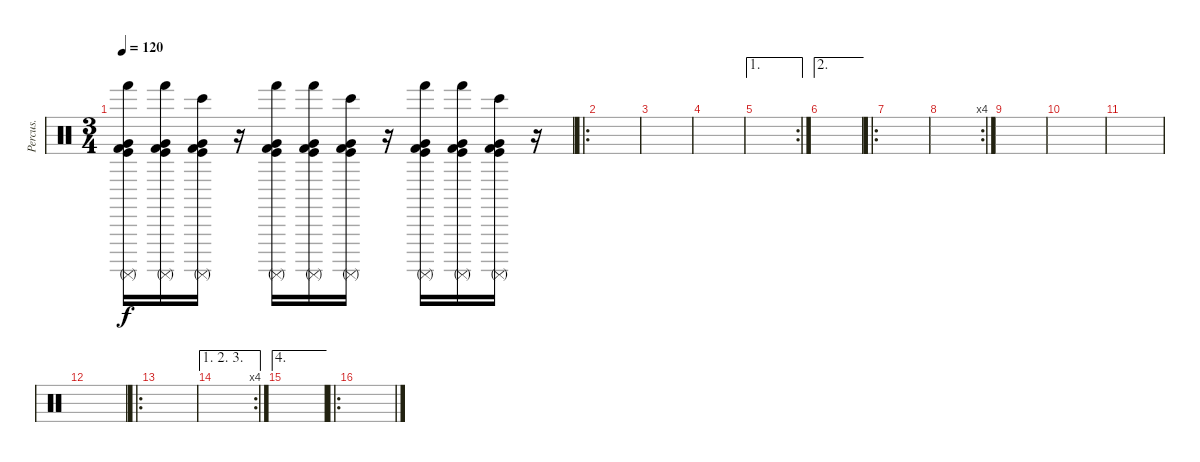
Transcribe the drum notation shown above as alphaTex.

\track ("Percus." "Percus.") {instrument percussion}
\staff {score}
\articulation defaults
\ts (3 4)
\tempo 120
\clef neutral
\ks c
("Hand (hit)" "Kick (hit)" "Kick (hit) 2" "Surdo (mute)" "Very Low Tom (hit)").16{dy f} ("Hand (hit)" "Kick (hit)" "Kick (hit) 2" "Surdo (mute)" "Very Low Tom (hit)").16 ("Bongo High (hit)" "Kick (hit)" "Kick (hit) 2" "Surdo (mute)" "Very Low Tom (hit)").16 r.16 ("Hand (hit)" "Kick (hit)" "Kick (hit) 2" "Surdo (mute)" "Very Low Tom (hit)").16 ("Hand (hit)" "Kick (hit)" "Kick (hit) 2" "Surdo (mute)" "Very Low Tom (hit)").16 ("Bongo High (hit)" "Kick (hit)" "Kick (hit) 2" "Surdo (mute)" "Very Low Tom (hit)").16 r.16 ("Hand (hit)" "Kick (hit)" "Kick (hit) 2" "Surdo (mute)" "Very Low Tom (hit)").16 ("Hand (hit)" "Kick (hit)" "Kick (hit) 2" "Surdo (mute)" "Very Low Tom (hit)").16 ("Bongo High (hit)" "Kick (hit)" "Kick (hit) 2" "Surdo (mute)" "Very Low Tom (hit)").16 r.16 |
\ro
|
|
|
\ae 1
\rc 2
|
\ae 2
|
\ro
|
\rc 4
|
|
|
|
|
\ro
|
\ae (1 2 3)
\rc 4
|
\ae 4
|
\ro
